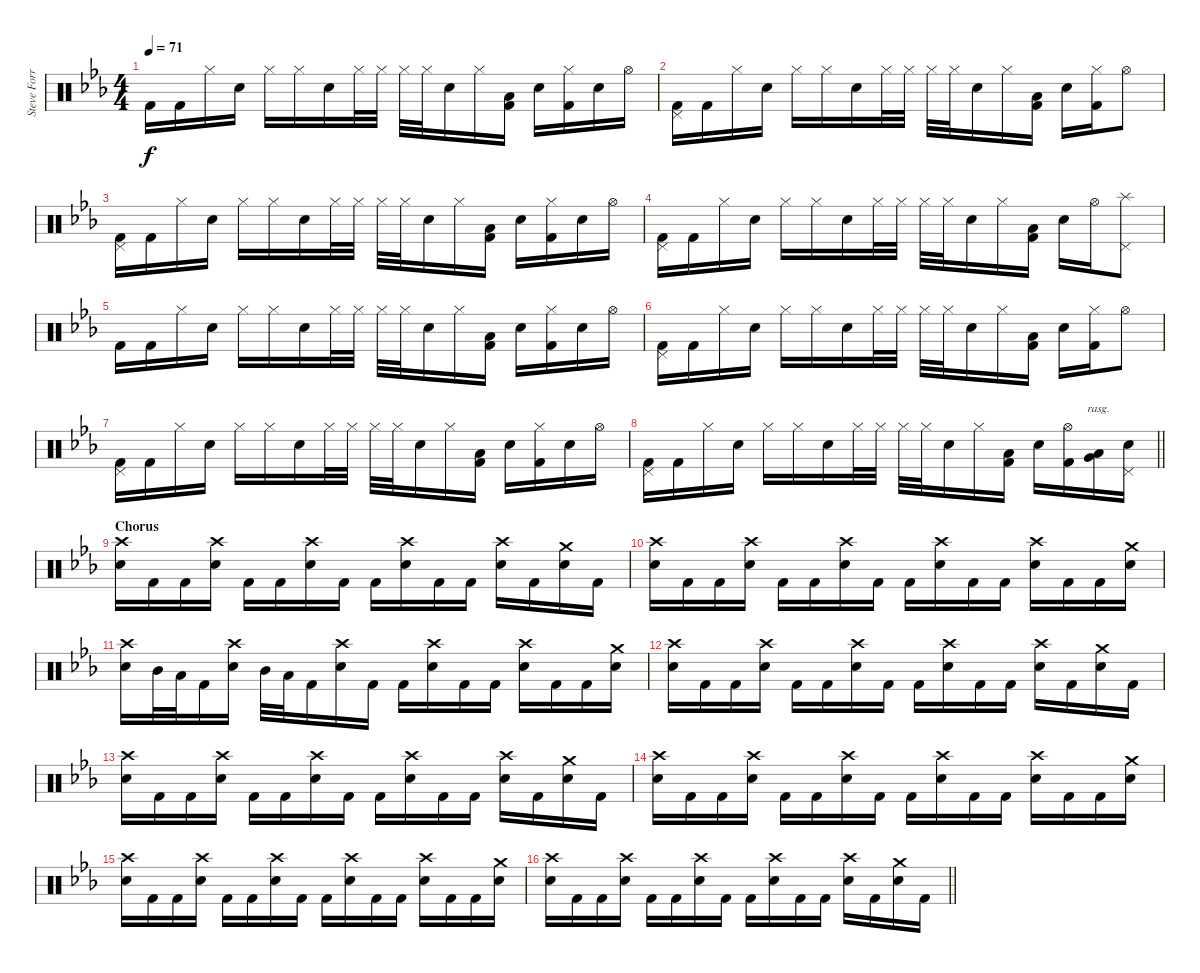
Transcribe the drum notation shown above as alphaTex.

\track ("Steve Forrest [Drums]" "Steve Forr") {instrument percussion}
\staff {score}
\articulation defaults
\ts (4 4)
\tempo 71
\clef neutral
\ks cminor "Kick (hit) 2".16{dy f} "Kick (hit) 2".16 "Hi-Hat (closed)".16 "Electric Snare (hit)".16 "Hi-Hat (closed)".16 "Hi-Hat (closed)".16 "Electric Snare (hit)".16 "Hi-Hat (closed)".32 "Hi-Hat (closed)".32 "Hi-Hat (closed)".32 "Hi-Hat (closed)".32 "Electric Snare (hit)".16 "Hi-Hat (closed)".16
("Low Tom (hit)" "Kick (hit) 2").16 "Electric Snare (hit)".16 ("Hi-Hat (closed)" "Kick (hit) 2").16 "Electric Snare (hit)".16 "Hi-Hat (open)".16 |
("Pedal Hi-Hat (hit)" "Kick (hit) 2").16 "Kick (hit) 2".16 "Hi-Hat (closed)".16 "Electric Snare (hit)".16 "Hi-Hat (closed)".16 "Hi-Hat (closed)".16 "Electric Snare (hit)".16 "Hi-Hat (closed)".32 "Hi-Hat (closed)".32 "Hi-Hat (closed)".32 "Hi-Hat (closed)".32 "Electric Snare (hit)".16 "Hi-Hat (closed)".16 ("Low Tom (hit)" "Kick (hit) 2").16 "Electric Snare (hit)".16 ("Hi-Hat (closed)" "Kick (hit) 2").16 "Hi-Hat (open)".8 |
("Pedal Hi-Hat (hit)" "Kick (hit) 2").16 "Kick (hit) 2".16 "Hi-Hat (closed)".16 "Electric Snare (hit)".16 "Hi-Hat (closed)".16 "Hi-Hat (closed)".16 "Electric Snare (hit)".16 "Hi-Hat (closed)".32 "Hi-Hat (closed)".32 "Hi-Hat (closed)".32 "Hi-Hat (closed)".32 "Electric Snare (hit)".16 "Hi-Hat (closed)".16 ("Low Tom (hit)" "Kick (hit) 2").16 "Electric Snare (hit)".16 ("Hi-Hat (closed)" "Kick (hit) 2").16 "Electric Snare (hit)".16 "Hi-Hat (open)".16 |
("Pedal Hi-Hat (hit)" "Kick (hit) 2").16 "Kick (hit) 2".16 "Hi-Hat (closed)".16 "Electric Snare (hit)".16 "Hi-Hat (closed)".16 "Hi-Hat (closed)".16 "Electric Snare (hit)".16 "Hi-Hat (closed)".32 "Hi-Hat (closed)".32 "Hi-Hat (closed)".32 "Hi-Hat (closed)".32 "Electric Snare (hit)".16 "Hi-Hat (closed)".16 ("Low Tom (hit)" "Kick (hit) 2").16 "Electric Snare (hit)".16 "Hi-Hat (open)".16 ("Pedal Hi-Hat (hit)" "Splash (hit)").8 |
"Kick (hit) 2".16 "Kick (hit) 2".16 "Hi-Hat (closed)".16 "Electric Snare (hit)".16 "Hi-Hat (closed)".16 "Hi-Hat (closed)".16 "Electric Snare (hit)".16 "Hi-Hat (closed)".32 "Hi-Hat (closed)".32 "Hi-Hat (closed)".32 "Hi-Hat (closed)".32 "Electric Snare (hit)".16 "Hi-Hat (closed)".16 ("Low Tom (hit)" "Kick (hit) 2").16 "Electric Snare (hit)".16 ("Hi-Hat (closed)" "Kick (hit) 2").16 "Electric Snare (hit)".16 "Hi-Hat (open)".16 |
("Pedal Hi-Hat (hit)" "Kick (hit) 2").16 "Kick (hit) 2".16 "Hi-Hat (closed)".16 "Electric Snare (hit)".16 "Hi-Hat (closed)".16 "Hi-Hat (closed)".16 "Electric Snare (hit)".16 "Hi-Hat (closed)".32 "Hi-Hat (closed)".32 "Hi-Hat (closed)".32 "Hi-Hat (closed)".32 "Electric Snare (hit)".16 "Hi-Hat (closed)".16 ("Low Tom (hit)" "Kick (hit) 2").16 "Electric Snare (hit)".16 ("Hi-Hat (closed)" "Kick (hit) 2").16 "Hi-Hat (open)".8 |
("Pedal Hi-Hat (hit)" "Kick (hit) 2").16 "Kick (hit) 2".16 "Hi-Hat (closed)".16 "Electric Snare (hit)".16 "Hi-Hat (closed)".16 "Hi-Hat (closed)".16 "Electric Snare (hit)".16 "Hi-Hat (closed)".32 "Hi-Hat (closed)".32 "Hi-Hat (closed)".32 "Hi-Hat (closed)".32 "Electric Snare (hit)".16 "Hi-Hat (closed)".16 ("Low Tom (hit)" "Kick (hit) 2").16 "Electric Snare (hit)".16 ("Hi-Hat (closed)" "Kick (hit) 2").16 "Electric Snare (hit)".16 "Hi-Hat (open)".16 |
\barLineRight lightlight
("Pedal Hi-Hat (hit)" "Kick (hit) 2").16 "Kick (hit) 2".16 "Hi-Hat (closed)".16 "Electric Snare (hit)".16 "Hi-Hat (closed)".16 "Hi-Hat (closed)".16 "Electric Snare (hit)".16 "Hi-Hat (closed)".32 "Hi-Hat (closed)".32 "Hi-Hat (closed)".32 "Hi-Hat (closed)".32 "Electric Snare (hit)".16 "Hi-Hat (closed)".16 ("Low Tom (hit)" "Kick (hit) 2").16 "Electric Snare (hit)".16 ("Hi-Hat (open)" "Kick (hit) 2").16 ("Low Tom (hit)" "Very Low Tom (hit)").16{bd 120 rasg ii} ("Pedal Hi-Hat (hit)" "Electric Snare (hit)").16 |
\section ("" "Chorus")
("Crash high (hit)" "Electric Snare (hit)").16 "Kick (hit) 2".16 "Kick (hit) 2".16 ("Crash high (hit)" "Electric Snare (hit)").16 "Kick (hit) 2".16 "Kick (hit) 2".16 ("Crash high (hit)" "Electric Snare (hit)").16 "Kick (hit) 2".16 "Kick (hit) 2".16 ("Crash high (hit)" "Electric Snare (hit)").16 "Kick (hit) 2".16 "Kick (hit) 2".16 ("Crash high (hit)" "Electric Snare (hit)").16 "Kick (hit) 2".16 ("Crash medium (hit)" "Electric Snare (hit)").16 "Kick (hit) 2".16 |
("Crash high (hit)" "Electric Snare (hit)").16 "Kick (hit) 2".16 "Kick (hit) 2".16 ("Crash high (hit)" "Electric Snare (hit)").16 "Kick (hit) 2".16 "Kick (hit) 2".16 ("Crash high (hit)" "Electric Snare (hit)").16 "Kick (hit) 2".16 "Kick (hit) 2".16 ("Crash high (hit)" "Electric Snare (hit)").16 "Kick (hit) 2".16 "Kick (hit) 2".16 ("Crash high (hit)" "Electric Snare (hit)").16 "Kick (hit) 2".16 "Kick (hit) 2".16 ("Crash medium (hit)" "Electric Snare (hit)").16 |
("Crash high (hit)" "Electric Snare (hit)").16 "Mid Tom (hit)".32 "Low Tom (hit)".32 "Kick (hit) 2".16 ("Crash high (hit)" "Electric Snare (hit)").16 "Mid Tom (hit)".32 "Low Tom (hit)".32 "Kick (hit) 2".16 ("Crash high (hit)" "Electric Snare (hit)").16 "Kick (hit) 2".16 "Kick (hit) 2".16 ("Crash high (hit)" "Electric Snare (hit)").16 "Kick (hit) 2".16 "Kick (hit) 2".16 ("Crash high (hit)" "Electric Snare (hit)").16 "Kick (hit) 2".16 "Kick (hit) 2".16 ("Crash medium (hit)" "Electric Snare (hit)").16 |
("Crash high (hit)" "Electric Snare (hit)").16 "Kick (hit) 2".16 "Kick (hit) 2".16 ("Crash high (hit)" "Electric Snare (hit)").16 "Kick (hit) 2".16 "Kick (hit) 2".16 ("Crash high (hit)" "Electric Snare (hit)").16 "Kick (hit) 2".16 "Kick (hit) 2".16 ("Crash high (hit)" "Electric Snare (hit)").16 "Kick (hit) 2".16 "Kick (hit) 2".16 ("Crash high (hit)" "Electric Snare (hit)").16 "Kick (hit) 2".16 ("Crash medium (hit)" "Electric Snare (hit)").16 "Kick (hit) 2".16 |
("Crash high (hit)" "Electric Snare (hit)").16 "Kick (hit) 2".16 "Kick (hit) 2".16 ("Crash high (hit)" "Electric Snare (hit)").16 "Kick (hit) 2".16 "Kick (hit) 2".16 ("Crash high (hit)" "Electric Snare (hit)").16 "Kick (hit) 2".16 "Kick (hit) 2".16 ("Crash high (hit)" "Electric Snare (hit)").16 "Kick (hit) 2".16 "Kick (hit) 2".16 ("Crash high (hit)" "Electric Snare (hit)").16 "Kick (hit) 2".16 ("Crash medium (hit)" "Electric Snare (hit)").16 "Kick (hit) 2".16 |
("Crash high (hit)" "Electric Snare (hit)").16 "Kick (hit) 2".16 "Kick (hit) 2".16 ("Crash high (hit)" "Electric Snare (hit)").16 "Kick (hit) 2".16 "Kick (hit) 2".16 ("Crash high (hit)" "Electric Snare (hit)").16 "Kick (hit) 2".16 "Kick (hit) 2".16 ("Crash high (hit)" "Electric Snare (hit)").16 "Kick (hit) 2".16 "Kick (hit) 2".16 ("Crash high (hit)" "Electric Snare (hit)").16 "Kick (hit) 2".16 "Kick (hit) 2".16 ("Crash medium (hit)" "Electric Snare (hit)").16 |
("Crash high (hit)" "Electric Snare (hit)").16 "Kick (hit) 2".16 "Kick (hit) 2".16 ("Crash high (hit)" "Electric Snare (hit)").16 "Kick (hit) 2".16 "Kick (hit) 2".16 ("Crash high (hit)" "Electric Snare (hit)").16 "Kick (hit) 2".16 "Kick (hit) 2".16 ("Crash high (hit)" "Electric Snare (hit)").16 "Kick (hit) 2".16 "Kick (hit) 2".16 ("Crash high (hit)" "Electric Snare (hit)").16 "Kick (hit) 2".16 "Kick (hit) 2".16 ("Crash medium (hit)" "Electric Snare (hit)").16 |
\barLineRight lightlight
("Crash high (hit)" "Electric Snare (hit)").16 "Kick (hit) 2".16 "Kick (hit) 2".16 ("Crash high (hit)" "Electric Snare (hit)").16 "Kick (hit) 2".16 "Kick (hit) 2".16 ("Crash high (hit)" "Electric Snare (hit)").16 "Kick (hit) 2".16 "Kick (hit) 2".16 ("Crash high (hit)" "Electric Snare (hit)").16 "Kick (hit) 2".16 "Kick (hit) 2".16 ("Crash high (hit)" "Electric Snare (hit)").16 "Kick (hit) 2".16 ("Crash medium (hit)" "Electric Snare (hit)").16 "Kick (hit) 2".16
